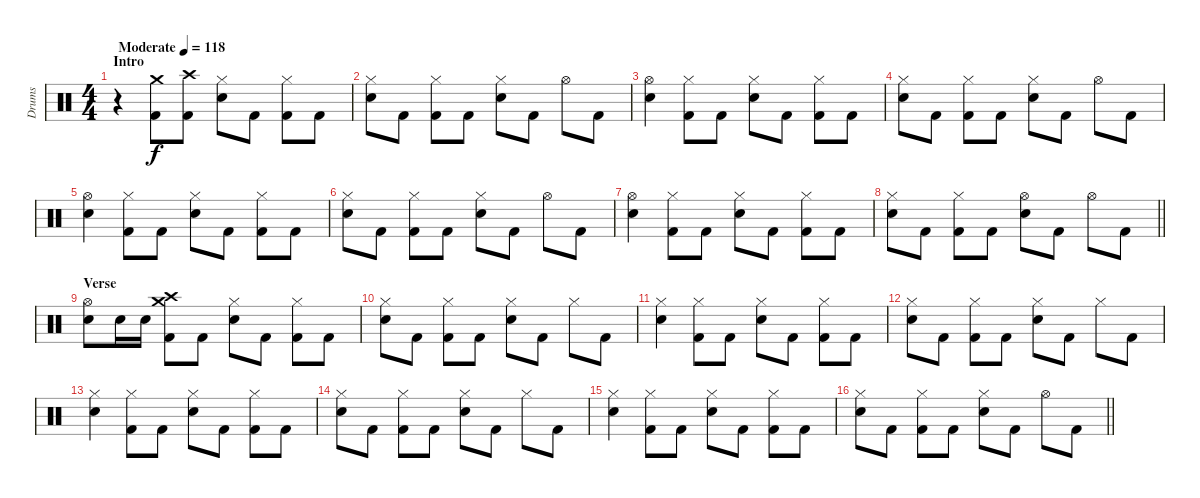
\track ("Drums" "Drums") {instrument percussion}
\staff {score}
\articulation defaults
\ts (4 4)
\section ("" "Intro")
\tempo (118 "Moderate")
\clef neutral
\ks c
r.4{dy f} ("Crash medium (hit)" "Kick (hit) 2").8 ("Crash high (hit)" "Kick (hit) 2").8 ("Hi-Hat (closed)" "Snare (hit) 2").8 "Kick (hit) 2".8 ("Hi-Hat (closed)" "Kick (hit) 2").8 "Kick (hit) 2".8 |
("Hi-Hat (closed)" "Snare (hit) 2").8 "Kick (hit) 2".8 ("Hi-Hat (closed)" "Kick (hit) 2").8 "Kick (hit) 2".8 ("Hi-Hat (closed)" "Snare (hit) 2").8 "Kick (hit) 2".8 "Hi-Hat (open)".8 "Kick (hit) 2".8 |
("Hi-Hat (open)" "Snare (hit) 2").4 ("Hi-Hat (closed)" "Kick (hit) 2").8 "Kick (hit) 2".8 ("Hi-Hat (closed)" "Snare (hit) 2").8 "Kick (hit) 2".8 ("Hi-Hat (closed)" "Kick (hit) 2").8 "Kick (hit) 2".8 |
("Hi-Hat (closed)" "Snare (hit) 2").8 "Kick (hit) 2".8 ("Hi-Hat (closed)" "Kick (hit) 2").8 "Kick (hit) 2".8 ("Hi-Hat (closed)" "Snare (hit) 2").8 "Kick (hit) 2".8 "Hi-Hat (open)".8 "Kick (hit) 2".8 |
("Hi-Hat (open)" "Snare (hit) 2").4 ("Hi-Hat (closed)" "Kick (hit) 2").8 "Kick (hit) 2".8 ("Hi-Hat (closed)" "Snare (hit) 2").8 "Kick (hit) 2".8 ("Hi-Hat (closed)" "Kick (hit) 2").8 "Kick (hit) 2".8 |
("Hi-Hat (closed)" "Snare (hit) 2").8 "Kick (hit) 2".8 ("Hi-Hat (closed)" "Kick (hit) 2").8 "Kick (hit) 2".8 ("Hi-Hat (closed)" "Snare (hit) 2").8 "Kick (hit) 2".8 "Hi-Hat (open)".8 "Kick (hit) 2".8 |
("Hi-Hat (open)" "Snare (hit) 2").4 ("Hi-Hat (closed)" "Kick (hit) 2").8 "Kick (hit) 2".8 ("Hi-Hat (closed)" "Snare (hit) 2").8 "Kick (hit) 2".8 ("Hi-Hat (closed)" "Kick (hit) 2").8 "Kick (hit) 2".8 |
\barLineRight lightlight
("Hi-Hat (closed)" "Snare (hit) 2").8 "Kick (hit) 2".8 ("Hi-Hat (closed)" "Kick (hit) 2").8 "Kick (hit) 2".8 ("Hi-Hat (open)" "Snare (hit) 2").8 "Kick (hit) 2".8 "Hi-Hat (open)".8 "Kick (hit) 2".8 |
\section ("" "Verse")
("Hi-Hat (open)" "Snare (hit) 2").8 "Snare (hit) 2".16 "Snare (hit) 2".16 ("Crash medium (hit)" "Crash high (hit)" "Kick (hit) 2").8 "Kick (hit) 2".8 ("Hi-Hat (closed)" "Snare (hit) 2").8 "Kick (hit) 2".8 ("Hi-Hat (closed)" "Kick (hit) 2").8 "Kick (hit) 2".8 |
("Hi-Hat (closed)" "Snare (hit) 2").8 "Kick (hit) 2".8 ("Hi-Hat (closed)" "Kick (hit) 2").8 "Kick (hit) 2".8 ("Hi-Hat (closed)" "Snare (hit) 2").8 "Kick (hit) 2".8 "Hi-Hat (closed)".8 "Kick (hit) 2".8 |
("Hi-Hat (closed)" "Snare (hit) 2").4 ("Hi-Hat (closed)" "Kick (hit) 2").8 "Kick (hit) 2".8 ("Hi-Hat (closed)" "Snare (hit) 2").8 "Kick (hit) 2".8 ("Hi-Hat (closed)" "Kick (hit) 2").8 "Kick (hit) 2".8 |
("Hi-Hat (closed)" "Snare (hit) 2").8 "Kick (hit) 2".8 ("Hi-Hat (closed)" "Kick (hit) 2").8 "Kick (hit) 2".8 ("Hi-Hat (closed)" "Snare (hit) 2").8 "Kick (hit) 2".8 "Hi-Hat (closed)".8 "Kick (hit) 2".8 |
("Hi-Hat (closed)" "Snare (hit) 2").4 ("Hi-Hat (closed)" "Kick (hit) 2").8 "Kick (hit) 2".8 ("Hi-Hat (closed)" "Snare (hit) 2").8 "Kick (hit) 2".8 ("Hi-Hat (closed)" "Kick (hit) 2").8 "Kick (hit) 2".8 |
("Hi-Hat (closed)" "Snare (hit) 2").8 "Kick (hit) 2".8 ("Hi-Hat (closed)" "Kick (hit) 2").8 "Kick (hit) 2".8 ("Hi-Hat (closed)" "Snare (hit) 2").8 "Kick (hit) 2".8 "Hi-Hat (closed)".8 "Kick (hit) 2".8 |
("Hi-Hat (closed)" "Snare (hit) 2").4 ("Hi-Hat (closed)" "Kick (hit) 2").8 "Kick (hit) 2".8 ("Hi-Hat (closed)" "Snare (hit) 2").8 "Kick (hit) 2".8 ("Hi-Hat (closed)" "Kick (hit) 2").8 "Kick (hit) 2".8 |
\barLineRight lightlight
("Hi-Hat (closed)" "Snare (hit) 2").8 "Kick (hit) 2".8 ("Hi-Hat (closed)" "Kick (hit) 2").8 "Kick (hit) 2".8 ("Hi-Hat (closed)" "Snare (hit) 2").8 "Kick (hit) 2".8 "Hi-Hat (open)".8 "Kick (hit) 2".8
